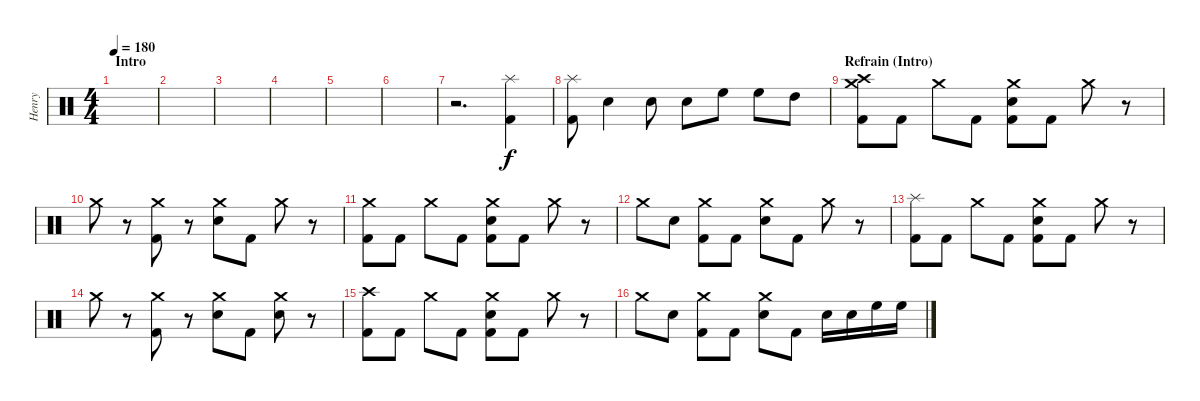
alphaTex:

\track ("Henry" "Henry") {instrument percussion}
\staff {score}
\articulation defaults
\ts (4 4)
\section ("" "Intro")
\tempo 180
\clef neutral
\ks c
|
|
|
|
|
|
r.2{d} ("Splash (hit)" "Kick (hit) 2").4 |
("Splash (hit)" "Kick (hit) 2").8 "Snare (hit) 2".4 "Snare (hit) 2".8 "Snare (hit) 2".8 "High Floor Tom (hit)".8 "High Floor Tom (hit)".8 "High Tom (hit)".8 |
\section ("" "Refrain (Intro)")
("Crash high (hit)" "Crash medium (hit)" "Kick (hit) 2").8 "Kick (hit) 2".8 "Crash medium (hit)".8 "Kick (hit) 2".8 ("Crash medium (hit)" "Snare (hit) 2" "Kick (hit) 2").8 "Kick (hit) 2".8 "Crash medium (hit)".8 r.8 |
"Crash medium (hit)".8 r.8 ("Crash medium (hit)" "Kick (hit) 2").8 r.8 ("Crash medium (hit)" "Snare (hit) 2").8 "Kick (hit) 2".8 "Crash medium (hit)".8 r.8 |
("Crash medium (hit)" "Kick (hit) 2").8 "Kick (hit) 2".8 "Crash medium (hit)".8 "Kick (hit) 2".8 ("Crash medium (hit)" "Snare (hit) 2" "Kick (hit) 2").8 "Kick (hit) 2".8 "Crash medium (hit)".8 r.8 |
"Crash medium (hit)".8 "Snare (hit) 2".8 ("Crash medium (hit)" "Kick (hit) 2").8 "Kick (hit) 2".8 ("Crash medium (hit)" "Snare (hit) 2").8 "Kick (hit) 2".8 "Crash medium (hit)".8 r.8 |
("Splash (hit)" "Kick (hit) 2").8 "Kick (hit) 2".8 "Crash medium (hit)".8 "Kick (hit) 2".8 ("Crash medium (hit)" "Snare (hit) 2" "Kick (hit) 2").8 "Kick (hit) 2".8 "Crash medium (hit)".8 r.8 |
"Crash medium (hit)".8 r.8 ("Crash medium (hit)" "Kick (hit) 2").8 r.8 ("Crash medium (hit)" "Snare (hit) 2").8 "Kick (hit) 2".8 ("Crash medium (hit)" "Snare (hit) 2").8 r.8 |
("Crash high (hit)" "Kick (hit) 2").8 "Kick (hit) 2".8 "Crash medium (hit)".8 "Kick (hit) 2".8 ("Crash medium (hit)" "Snare (hit) 2" "Kick (hit) 2").8 "Kick (hit) 2".8 "Crash medium (hit)".8 r.8 |
"Crash medium (hit)".8 "Snare (hit) 2".8 ("Crash medium (hit)" "Kick (hit) 2").8 "Kick (hit) 2".8 ("Crash medium (hit)" "Snare (hit) 2").8 "Kick (hit) 2".8 "Snare (hit) 2".16 "Snare (hit) 2".16 "High Floor Tom (hit)".16 "High Floor Tom (hit)".16
